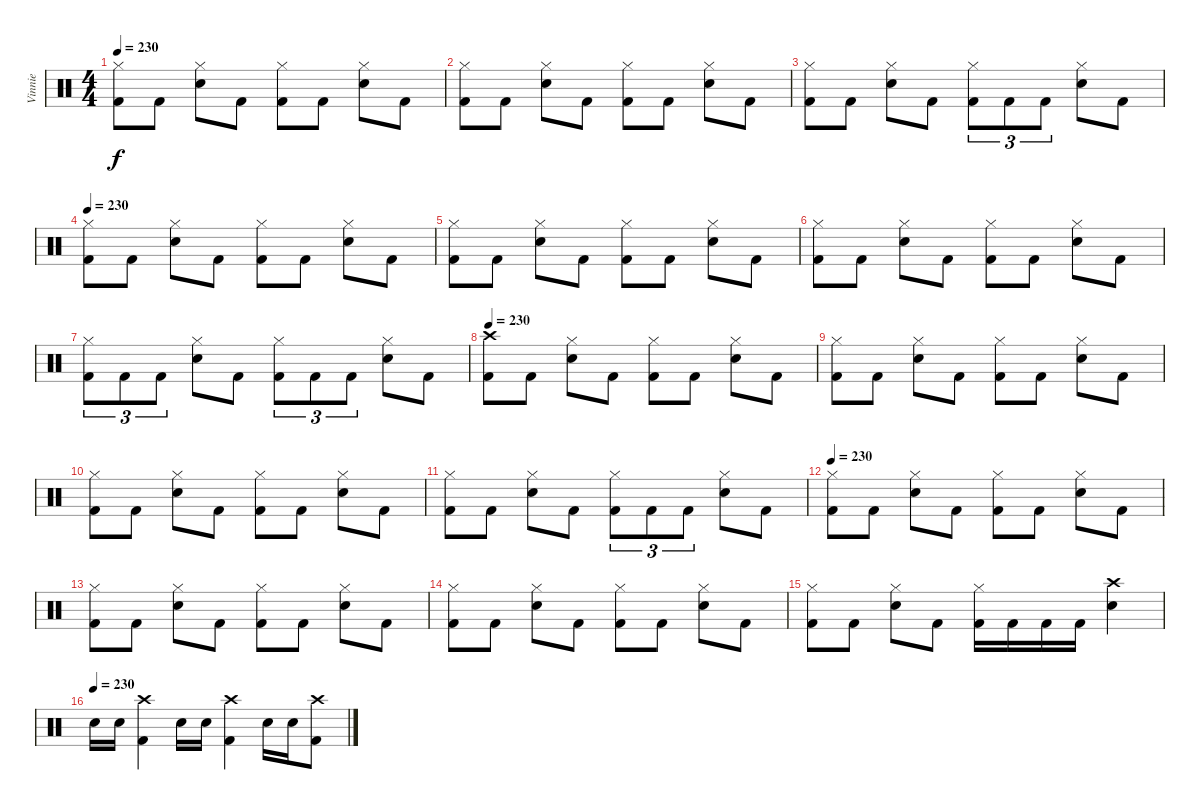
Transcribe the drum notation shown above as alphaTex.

\track ("Vinnie" "Vinnie") {instrument percussion}
\staff {score}
\articulation defaults
\ts (4 4)
\tempo 230
\clef neutral
\ks c
("Hi-Hat (closed)" "Kick (hit) 2").8{dy f} "Kick (hit) 2".8 ("Hi-Hat (closed)" "Electric Snare (hit)").8 "Kick (hit) 2".8 ("Hi-Hat (closed)" "Kick (hit) 2").8 "Kick (hit) 2".8 ("Hi-Hat (closed)" "Electric Snare (hit)").8 "Kick (hit) 2".8 |
("Hi-Hat (closed)" "Kick (hit) 2").8 "Kick (hit) 2".8 ("Hi-Hat (closed)" "Electric Snare (hit)").8 "Kick (hit) 2".8 ("Hi-Hat (closed)" "Kick (hit) 2").8 "Kick (hit) 2".8 ("Hi-Hat (closed)" "Electric Snare (hit)").8 "Kick (hit) 2".8 |
("Hi-Hat (closed)" "Kick (hit) 2").8 "Kick (hit) 2".8 ("Hi-Hat (closed)" "Electric Snare (hit)").8 "Kick (hit) 2".8 ("Hi-Hat (closed)" "Kick (hit) 2").8{tu (3 2)} "Kick (hit) 2".8{tu (3 2)} "Kick (hit) 2".8{tu (3 2)} ("Hi-Hat (closed)" "Electric Snare (hit)").8 "Kick (hit) 2".8 |
\tempo 230
("Hi-Hat (closed)" "Kick (hit) 2").8 "Kick (hit) 2".8 ("Hi-Hat (closed)" "Electric Snare (hit)").8 "Kick (hit) 2".8 ("Hi-Hat (closed)" "Kick (hit) 2").8 "Kick (hit) 2".8 ("Hi-Hat (closed)" "Electric Snare (hit)").8 "Kick (hit) 2".8 |
("Hi-Hat (closed)" "Kick (hit) 2").8 "Kick (hit) 2".8 ("Hi-Hat (closed)" "Electric Snare (hit)").8 "Kick (hit) 2".8 ("Hi-Hat (closed)" "Kick (hit) 2").8 "Kick (hit) 2".8 ("Hi-Hat (closed)" "Electric Snare (hit)").8 "Kick (hit) 2".8 |
("Hi-Hat (closed)" "Kick (hit) 2").8 "Kick (hit) 2".8 ("Hi-Hat (closed)" "Electric Snare (hit)").8 "Kick (hit) 2".8 ("Hi-Hat (closed)" "Kick (hit) 2").8 "Kick (hit) 2".8 ("Hi-Hat (closed)" "Electric Snare (hit)").8 "Kick (hit) 2".8 |
("Hi-Hat (closed)" "Kick (hit) 2").8{tu (3 2)} "Kick (hit) 2".8{tu (3 2)} "Kick (hit) 2".8{tu (3 2)} ("Hi-Hat (closed)" "Electric Snare (hit)").8 "Kick (hit) 2".8 ("Hi-Hat (closed)" "Kick (hit) 2").8{tu (3 2)} "Kick (hit) 2".8{tu (3 2)} "Kick (hit) 2".8{tu (3 2)} ("Hi-Hat (closed)" "Electric Snare (hit)").8 "Kick (hit) 2".8 |
\tempo 230
("Crash high (hit)" "Kick (hit) 2").8 "Kick (hit) 2".8 ("Hi-Hat (closed)" "Electric Snare (hit)").8 "Kick (hit) 2".8 ("Hi-Hat (closed)" "Kick (hit) 2").8 "Kick (hit) 2".8 ("Hi-Hat (closed)" "Electric Snare (hit)").8 "Kick (hit) 2".8 |
("Hi-Hat (closed)" "Kick (hit) 2").8 "Kick (hit) 2".8 ("Hi-Hat (closed)" "Electric Snare (hit)").8 "Kick (hit) 2".8 ("Hi-Hat (closed)" "Kick (hit) 2").8 "Kick (hit) 2".8 ("Hi-Hat (closed)" "Electric Snare (hit)").8 "Kick (hit) 2".8 |
("Hi-Hat (closed)" "Kick (hit) 2").8 "Kick (hit) 2".8 ("Hi-Hat (closed)" "Electric Snare (hit)").8 "Kick (hit) 2".8 ("Hi-Hat (closed)" "Kick (hit) 2").8 "Kick (hit) 2".8 ("Hi-Hat (closed)" "Electric Snare (hit)").8 "Kick (hit) 2".8 |
("Hi-Hat (closed)" "Kick (hit) 2").8 "Kick (hit) 2".8 ("Hi-Hat (closed)" "Electric Snare (hit)").8 "Kick (hit) 2".8 ("Hi-Hat (closed)" "Kick (hit) 2").8{tu (3 2)} "Kick (hit) 2".8{tu (3 2)} "Kick (hit) 2".8{tu (3 2)} ("Hi-Hat (closed)" "Electric Snare (hit)").8 "Kick (hit) 2".8 |
\tempo 230
("Hi-Hat (closed)" "Kick (hit) 2").8 "Kick (hit) 2".8 ("Hi-Hat (closed)" "Electric Snare (hit)").8 "Kick (hit) 2".8 ("Hi-Hat (closed)" "Kick (hit) 2").8 "Kick (hit) 2".8 ("Hi-Hat (closed)" "Electric Snare (hit)").8 "Kick (hit) 2".8 |
("Hi-Hat (closed)" "Kick (hit) 2").8 "Kick (hit) 2".8 ("Hi-Hat (closed)" "Electric Snare (hit)").8 "Kick (hit) 2".8 ("Hi-Hat (closed)" "Kick (hit) 2").8 "Kick (hit) 2".8 ("Hi-Hat (closed)" "Electric Snare (hit)").8 "Kick (hit) 2".8 |
("Hi-Hat (closed)" "Kick (hit) 2").8 "Kick (hit) 2".8 ("Hi-Hat (closed)" "Electric Snare (hit)").8 "Kick (hit) 2".8 ("Hi-Hat (closed)" "Kick (hit) 2").8 "Kick (hit) 2".8 ("Hi-Hat (closed)" "Electric Snare (hit)").8 "Kick (hit) 2".8 |
("Hi-Hat (closed)" "Kick (hit) 2").8 "Kick (hit) 2".8 ("Hi-Hat (closed)" "Electric Snare (hit)").8 "Kick (hit) 2".8 ("Hi-Hat (closed)" "Kick (hit) 2").16 "Kick (hit) 2".16 "Kick (hit) 2".16 "Kick (hit) 2".16 ("Crash high (hit)" "Electric Snare (hit)").4 |
\tempo (230)
"Electric Snare (hit)".16 "Electric Snare (hit)".16 ("Crash high (hit)" "Kick (hit) 2").4 "Electric Snare (hit)".16 "Electric Snare (hit)".16 ("Crash high (hit)" "Kick (hit) 2").4 "Electric Snare (hit)".16 "Electric Snare (hit)".16 ("Crash high (hit)" "Kick (hit) 2").8
